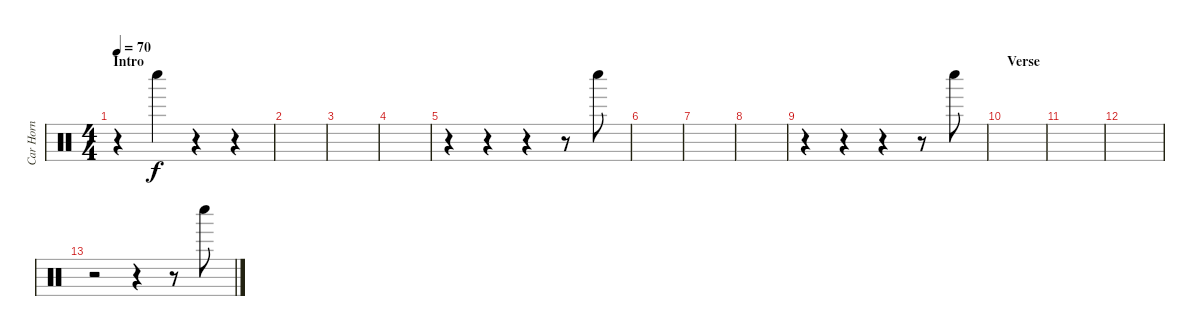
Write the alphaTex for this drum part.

\track ("Car Horn" "Car Horn") {instrument percussion}
\staff {score}
\articulation defaults
\ts (4 4)
\section ("" "Intro")
\tempo 70
\clef neutral
\ks c
r.4{dy f} "Whistle low (hit)".4 r.4 r.4 |
|
|
|
r.4 r.4 r.4 r.8 "Whistle low (hit)".8 |
|
|
|
r.4 r.4 r.4 r.8 "Whistle low (hit)".8 |
\section ("" "Verse")
|
|
|
r.2 r.4 r.8 "Whistle low (hit)".8
